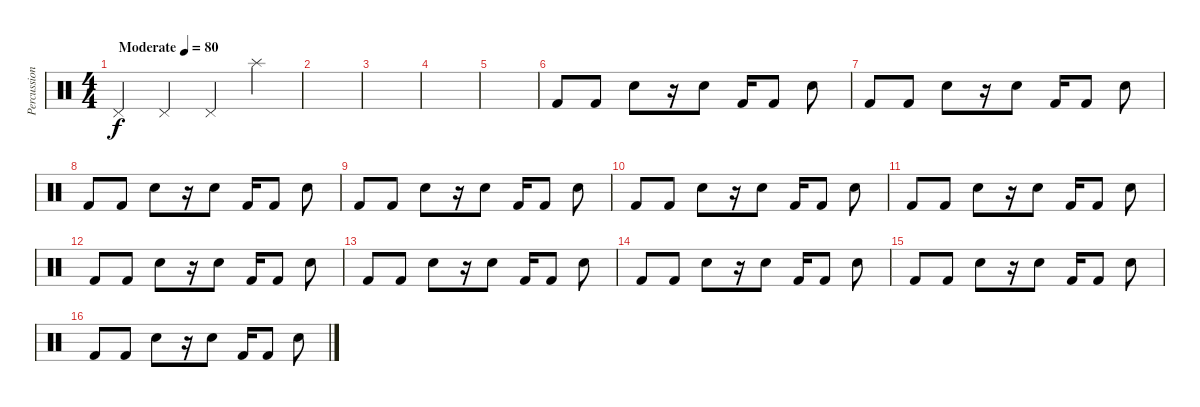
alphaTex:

\track ("Percussion" "Percussion") {instrument percussion}
\staff {score}
\articulation defaults
\ts (4 4)
\tempo (80 "Moderate")
\clef neutral
\ks c "Pedal Hi-Hat (hit)".4{dy f} "Pedal Hi-Hat (hit)".4 "Pedal Hi-Hat (hit)".4 "Splash (hit)".4
|
|
|
|
|
"Kick (hit) 2".8 "Kick (hit) 2".8 "Electric Snare (hit)".8 r.16 "Electric Snare (hit)".8 "Kick (hit) 2".16 "Kick (hit) 2".8 "Electric Snare (hit)".8 |
"Kick (hit) 2".8 "Kick (hit) 2".8 "Electric Snare (hit)".8 r.16 "Electric Snare (hit)".8 "Kick (hit) 2".16 "Kick (hit) 2".8 "Electric Snare (hit)".8 |
"Kick (hit) 2".8 "Kick (hit) 2".8 "Electric Snare (hit)".8 r.16 "Electric Snare (hit)".8 "Kick (hit) 2".16 "Kick (hit) 2".8 "Electric Snare (hit)".8 |
"Kick (hit) 2".8 "Kick (hit) 2".8 "Electric Snare (hit)".8 r.16 "Electric Snare (hit)".8 "Kick (hit) 2".16 "Kick (hit) 2".8 "Electric Snare (hit)".8 |
"Kick (hit) 2".8 "Kick (hit) 2".8 "Electric Snare (hit)".8 r.16 "Electric Snare (hit)".8 "Kick (hit) 2".16 "Kick (hit) 2".8 "Electric Snare (hit)".8 |
"Kick (hit) 2".8 "Kick (hit) 2".8 "Electric Snare (hit)".8 r.16 "Electric Snare (hit)".8 "Kick (hit) 2".16 "Kick (hit) 2".8 "Electric Snare (hit)".8 |
"Kick (hit) 2".8 "Kick (hit) 2".8 "Electric Snare (hit)".8 r.16 "Electric Snare (hit)".8 "Kick (hit) 2".16 "Kick (hit) 2".8 "Electric Snare (hit)".8 |
"Kick (hit) 2".8 "Kick (hit) 2".8 "Electric Snare (hit)".8 r.16 "Electric Snare (hit)".8 "Kick (hit) 2".16 "Kick (hit) 2".8 "Electric Snare (hit)".8 |
"Kick (hit) 2".8 "Kick (hit) 2".8 "Electric Snare (hit)".8 r.16 "Electric Snare (hit)".8 "Kick (hit) 2".16 "Kick (hit) 2".8 "Electric Snare (hit)".8 |
"Kick (hit) 2".8 "Kick (hit) 2".8 "Electric Snare (hit)".8 r.16 "Electric Snare (hit)".8 "Kick (hit) 2".16 "Kick (hit) 2".8 "Electric Snare (hit)".8 |
"Kick (hit) 2".8 "Kick (hit) 2".8 "Electric Snare (hit)".8 r.16 "Electric Snare (hit)".8 "Kick (hit) 2".16 "Kick (hit) 2".8 "Electric Snare (hit)".8
